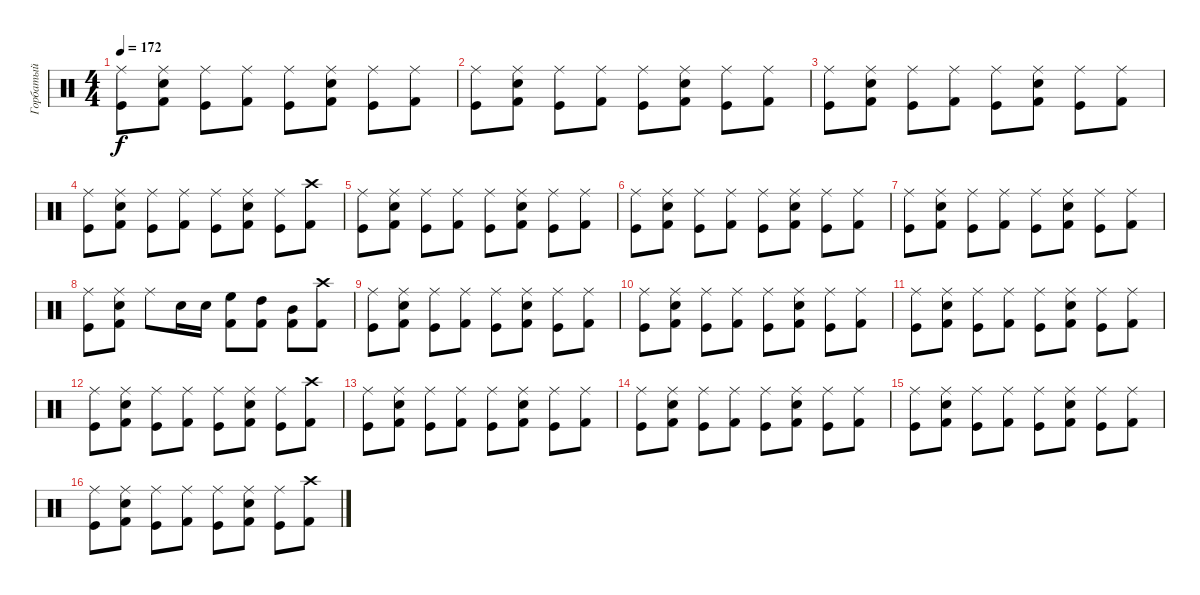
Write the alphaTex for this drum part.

\track ("Горбатый" "Горбатый") {instrument percussion}
\staff {score}
\articulation defaults
\ts (4 4)
\tempo 172
\clef neutral
\ks c
("Ride (middle)" "Kick (hit)").8{dy f} ("Electric Snare (hit)" "Ride (middle)" "Kick (hit) 2").8 ("Ride (middle)" "Kick (hit)").8 ("Ride (middle)" "Kick (hit) 2").8 ("Ride (middle)" "Kick (hit)").8 ("Electric Snare (hit)" "Ride (middle)" "Kick (hit) 2").8 ("Ride (middle)" "Kick (hit)").8 ("Ride (middle)" "Kick (hit) 2").8 |
("Ride (middle)" "Kick (hit)").8 ("Electric Snare (hit)" "Ride (middle)" "Kick (hit) 2").8 ("Ride (middle)" "Kick (hit)").8 ("Ride (middle)" "Kick (hit) 2").8 ("Ride (middle)" "Kick (hit)").8 ("Electric Snare (hit)" "Ride (middle)" "Kick (hit) 2").8 ("Ride (middle)" "Kick (hit)").8 ("Ride (middle)" "Kick (hit) 2").8 |
("Ride (middle)" "Kick (hit)").8 ("Electric Snare (hit)" "Ride (middle)" "Kick (hit) 2").8 ("Ride (middle)" "Kick (hit)").8 ("Ride (middle)" "Kick (hit) 2").8 ("Ride (middle)" "Kick (hit)").8 ("Electric Snare (hit)" "Ride (middle)" "Kick (hit) 2").8 ("Ride (middle)" "Kick (hit)").8 ("Ride (middle)" "Kick (hit) 2").8 |
("Ride (middle)" "Kick (hit)").8 ("Electric Snare (hit)" "Ride (middle)" "Kick (hit) 2").8 ("Ride (middle)" "Kick (hit)").8 ("Ride (middle)" "Kick (hit) 2").8 ("Ride (middle)" "Kick (hit)").8 ("Electric Snare (hit)" "Ride (middle)" "Kick (hit) 2").8 ("Ride (middle)" "Kick (hit)").8 ("Crash high (hit)" "Kick (hit) 2").8 |
("Ride (middle)" "Kick (hit)").8 ("Electric Snare (hit)" "Ride (middle)" "Kick (hit) 2").8 ("Ride (middle)" "Kick (hit)").8 ("Ride (middle)" "Kick (hit) 2").8 ("Ride (middle)" "Kick (hit)").8 ("Electric Snare (hit)" "Ride (middle)" "Kick (hit) 2").8 ("Ride (middle)" "Kick (hit)").8 ("Ride (middle)" "Kick (hit) 2").8 |
("Ride (middle)" "Kick (hit)").8 ("Electric Snare (hit)" "Ride (middle)" "Kick (hit) 2").8 ("Ride (middle)" "Kick (hit)").8 ("Ride (middle)" "Kick (hit) 2").8 ("Ride (middle)" "Kick (hit)").8 ("Electric Snare (hit)" "Ride (middle)" "Kick (hit) 2").8 ("Ride (middle)" "Kick (hit)").8 ("Ride (middle)" "Kick (hit) 2").8 |
("Ride (middle)" "Kick (hit)").8 ("Electric Snare (hit)" "Ride (middle)" "Kick (hit) 2").8 ("Ride (middle)" "Kick (hit)").8 ("Ride (middle)" "Kick (hit) 2").8 ("Ride (middle)" "Kick (hit)").8 ("Electric Snare (hit)" "Ride (middle)" "Kick (hit) 2").8 ("Ride (middle)" "Kick (hit)").8 ("Ride (middle)" "Kick (hit) 2").8 |
("Ride (middle)" "Kick (hit)").8 ("Electric Snare (hit)" "Ride (middle)" "Kick (hit) 2").8 "Ride (middle)".8 "Electric Snare (hit)".16 "Electric Snare (hit)".16 ("Kick (hit) 2" "High Floor Tom (hit)").8 ("Kick (hit) 2" "High Tom (hit)").8 ("Kick (hit) 2" "Mid Tom (hit)").8 ("Crash high (hit)" "Kick (hit) 2").8 |
("Ride (middle)" "Kick (hit)").8 ("Electric Snare (hit)" "Ride (middle)" "Kick (hit) 2").8 ("Ride (middle)" "Kick (hit)").8 ("Ride (middle)" "Kick (hit) 2").8 ("Ride (middle)" "Kick (hit)").8 ("Electric Snare (hit)" "Ride (middle)" "Kick (hit) 2").8 ("Ride (middle)" "Kick (hit)").8 ("Ride (middle)" "Kick (hit) 2").8 |
("Ride (middle)" "Kick (hit)").8 ("Electric Snare (hit)" "Ride (middle)" "Kick (hit) 2").8 ("Ride (middle)" "Kick (hit)").8 ("Ride (middle)" "Kick (hit) 2").8 ("Ride (middle)" "Kick (hit)").8 ("Electric Snare (hit)" "Ride (middle)" "Kick (hit) 2").8 ("Ride (middle)" "Kick (hit)").8 ("Ride (middle)" "Kick (hit) 2").8 |
("Ride (middle)" "Kick (hit)").8 ("Electric Snare (hit)" "Ride (middle)" "Kick (hit) 2").8 ("Ride (middle)" "Kick (hit)").8 ("Ride (middle)" "Kick (hit) 2").8 ("Ride (middle)" "Kick (hit)").8 ("Electric Snare (hit)" "Ride (middle)" "Kick (hit) 2").8 ("Ride (middle)" "Kick (hit)").8 ("Ride (middle)" "Kick (hit) 2").8 |
("Ride (middle)" "Kick (hit)").8 ("Electric Snare (hit)" "Ride (middle)" "Kick (hit) 2").8 ("Ride (middle)" "Kick (hit)").8 ("Ride (middle)" "Kick (hit) 2").8 ("Ride (middle)" "Kick (hit)").8 ("Electric Snare (hit)" "Ride (middle)" "Kick (hit) 2").8 ("Ride (middle)" "Kick (hit)").8 ("Crash high (hit)" "Kick (hit) 2").8 |
("Ride (middle)" "Kick (hit)").8 ("Electric Snare (hit)" "Ride (middle)" "Kick (hit) 2").8 ("Ride (middle)" "Kick (hit)").8 ("Ride (middle)" "Kick (hit) 2").8 ("Ride (middle)" "Kick (hit)").8 ("Electric Snare (hit)" "Ride (middle)" "Kick (hit) 2").8 ("Ride (middle)" "Kick (hit)").8 ("Ride (middle)" "Kick (hit) 2").8 |
("Ride (middle)" "Kick (hit)").8 ("Electric Snare (hit)" "Ride (middle)" "Kick (hit) 2").8 ("Ride (middle)" "Kick (hit)").8 ("Ride (middle)" "Kick (hit) 2").8 ("Ride (middle)" "Kick (hit)").8 ("Electric Snare (hit)" "Ride (middle)" "Kick (hit) 2").8 ("Ride (middle)" "Kick (hit)").8 ("Ride (middle)" "Kick (hit) 2").8 |
("Ride (middle)" "Kick (hit)").8 ("Electric Snare (hit)" "Ride (middle)" "Kick (hit) 2").8 ("Ride (middle)" "Kick (hit)").8 ("Ride (middle)" "Kick (hit) 2").8 ("Ride (middle)" "Kick (hit)").8 ("Electric Snare (hit)" "Ride (middle)" "Kick (hit) 2").8 ("Ride (middle)" "Kick (hit)").8 ("Ride (middle)" "Kick (hit) 2").8 |
("Ride (middle)" "Kick (hit)").8 ("Electric Snare (hit)" "Ride (middle)" "Kick (hit) 2").8 ("Ride (middle)" "Kick (hit)").8 ("Ride (middle)" "Kick (hit) 2").8 ("Ride (middle)" "Kick (hit)").8 ("Electric Snare (hit)" "Ride (middle)" "Kick (hit) 2").8 ("Ride (middle)" "Kick (hit)").8 ("Crash high (hit)" "Kick (hit) 2").8
